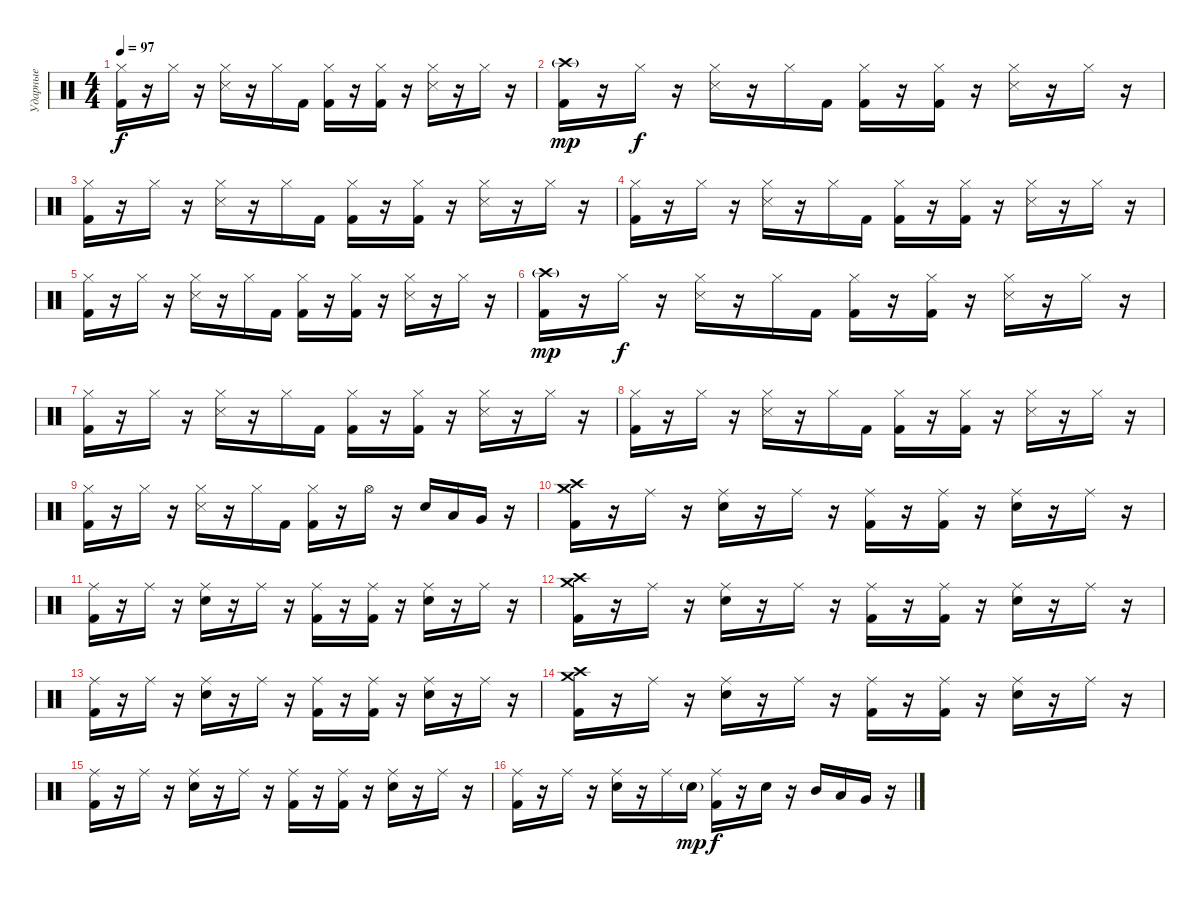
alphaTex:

\track ("Ударные" "Ударные") {instrument percussion}
\staff {score}
\articulation defaults
\ts (4 4)
\tempo 97
\clef neutral
\ks c
("Hi-Hat (closed)" "Kick (hit) 2").16{dy f} r.16 "Hi-Hat (closed)".16 r.16 ("Hi-Hat (closed)" "Snare (side stick) 3").16 r.16 "Hi-Hat (closed)".16 "Kick (hit) 2".16 ("Hi-Hat (closed)" "Kick (hit) 2").16 r.16 ("Hi-Hat (closed)" "Kick (hit) 2").16 r.16 ("Hi-Hat (closed)" "Snare (side stick) 3").16 r.16 "Hi-Hat (closed)".16 r.16 |
("Crash high (hit)"{g} "Kick (hit) 2").16{dy mp} r.16 "Hi-Hat (closed)".16{dy f} r.16 ("Hi-Hat (closed)" "Snare (side stick) 3").16 r.16 "Hi-Hat (closed)".16 "Kick (hit) 2".16 ("Hi-Hat (closed)" "Kick (hit) 2").16 r.16 ("Hi-Hat (closed)" "Kick (hit) 2").16 r.16 ("Hi-Hat (closed)" "Snare (side stick) 3").16 r.16 "Hi-Hat (closed)".16 r.16 |
("Hi-Hat (closed)" "Kick (hit) 2").16 r.16 "Hi-Hat (closed)".16 r.16 ("Hi-Hat (closed)" "Snare (side stick) 3").16 r.16 "Hi-Hat (closed)".16 "Kick (hit) 2".16 ("Hi-Hat (closed)" "Kick (hit) 2").16 r.16 ("Hi-Hat (closed)" "Kick (hit) 2").16 r.16 ("Hi-Hat (closed)" "Snare (side stick) 3").16 r.16 "Hi-Hat (closed)".16 r.16 |
("Hi-Hat (closed)" "Kick (hit) 2").16 r.16 "Hi-Hat (closed)".16 r.16 ("Hi-Hat (closed)" "Snare (side stick) 3").16 r.16 "Hi-Hat (closed)".16 "Kick (hit) 2".16 ("Hi-Hat (closed)" "Kick (hit) 2").16 r.16 ("Hi-Hat (closed)" "Kick (hit) 2").16 r.16 ("Hi-Hat (closed)" "Snare (side stick) 3").16 r.16 "Hi-Hat (closed)".16 r.16 |
("Hi-Hat (closed)" "Kick (hit) 2").16 r.16 "Hi-Hat (closed)".16 r.16 ("Hi-Hat (closed)" "Snare (side stick) 3").16 r.16 "Hi-Hat (closed)".16 "Kick (hit) 2".16 ("Hi-Hat (closed)" "Kick (hit) 2").16 r.16 ("Hi-Hat (closed)" "Kick (hit) 2").16 r.16 ("Hi-Hat (closed)" "Snare (side stick) 3").16 r.16 "Hi-Hat (closed)".16 r.16 |
("Crash high (hit)"{g} "Kick (hit) 2").16{dy mp} r.16 "Hi-Hat (closed)".16{dy f} r.16 ("Hi-Hat (closed)" "Snare (side stick) 3").16 r.16 "Hi-Hat (closed)".16 "Kick (hit) 2".16 ("Hi-Hat (closed)" "Kick (hit) 2").16 r.16 ("Hi-Hat (closed)" "Kick (hit) 2").16 r.16 ("Hi-Hat (closed)" "Snare (side stick) 3").16 r.16 "Hi-Hat (closed)".16 r.16 |
("Hi-Hat (closed)" "Kick (hit) 2").16 r.16 "Hi-Hat (closed)".16 r.16 ("Hi-Hat (closed)" "Snare (side stick) 3").16 r.16 "Hi-Hat (closed)".16 "Kick (hit) 2".16 ("Hi-Hat (closed)" "Kick (hit) 2").16 r.16 ("Hi-Hat (closed)" "Kick (hit) 2").16 r.16 ("Hi-Hat (closed)" "Snare (side stick) 3").16 r.16 "Hi-Hat (closed)".16 r.16 |
("Hi-Hat (closed)" "Kick (hit) 2").16 r.16 "Hi-Hat (closed)".16 r.16 ("Hi-Hat (closed)" "Snare (side stick) 3").16 r.16 "Hi-Hat (closed)".16 "Kick (hit) 2".16 ("Hi-Hat (closed)" "Kick (hit) 2").16 r.16 ("Hi-Hat (closed)" "Kick (hit) 2").16 r.16 ("Hi-Hat (closed)" "Snare (side stick) 3").16 r.16 "Hi-Hat (closed)".16 r.16 |
("Hi-Hat (closed)" "Kick (hit) 2").16 r.16 "Hi-Hat (closed)".16 r.16 ("Hi-Hat (closed)" "Snare (side stick) 3").16 r.16 "Hi-Hat (closed)".16 "Kick (hit) 2".16 ("Hi-Hat (closed)" "Kick (hit) 2").16 r.16 "Hi-Hat (open)".16 r.16 "Electric Snare (hit)".16 "Low Tom (hit)".16 "Very Low Tom (hit)".16 r.16 |
("Crash high (hit)" "Crash medium (hit)" "Kick (hit) 2").16 r.16 "Ride (middle)".16 r.16 ("Ride (middle)" "Electric Snare (hit)").16 r.16 "Ride (middle)".16 r.16 ("Ride (middle)" "Kick (hit) 2").16 r.16 ("Ride (middle)" "Kick (hit) 2").16 r.16 ("Ride (middle)" "Electric Snare (hit)").16 r.16 "Ride (middle)".16 r.16 |
("Ride (middle)" "Kick (hit) 2").16 r.16 "Ride (middle)".16 r.16 ("Ride (middle)" "Electric Snare (hit)").16 r.16 "Ride (middle)".16 r.16 ("Ride (middle)" "Kick (hit) 2").16 r.16 ("Ride (middle)" "Kick (hit) 2").16 r.16 ("Ride (middle)" "Electric Snare (hit)").16 r.16 "Ride (middle)".16 r.16 |
("Crash high (hit)" "Crash medium (hit)" "Kick (hit) 2").16 r.16 "Ride (middle)".16 r.16 ("Ride (middle)" "Electric Snare (hit)").16 r.16 "Ride (middle)".16 r.16 ("Ride (middle)" "Kick (hit) 2").16 r.16 ("Ride (middle)" "Kick (hit) 2").16 r.16 ("Ride (middle)" "Electric Snare (hit)").16 r.16 "Ride (middle)".16 r.16 |
("Ride (middle)" "Kick (hit) 2").16 r.16 "Ride (middle)".16 r.16 ("Ride (middle)" "Electric Snare (hit)").16 r.16 "Ride (middle)".16 r.16 ("Ride (middle)" "Kick (hit) 2").16 r.16 ("Ride (middle)" "Kick (hit) 2").16 r.16 ("Ride (middle)" "Electric Snare (hit)").16 r.16 "Ride (middle)".16 r.16 |
("Crash high (hit)" "Crash medium (hit)" "Kick (hit) 2").16 r.16 "Ride (middle)".16 r.16 ("Ride (middle)" "Electric Snare (hit)").16 r.16 "Ride (middle)".16 r.16 ("Ride (middle)" "Kick (hit) 2").16 r.16 ("Ride (middle)" "Kick (hit) 2").16 r.16 ("Ride (middle)" "Electric Snare (hit)").16 r.16 "Ride (middle)".16 r.16 |
("Ride (middle)" "Kick (hit) 2").16 r.16 "Ride (middle)".16 r.16 ("Ride (middle)" "Electric Snare (hit)").16 r.16 "Ride (middle)".16 r.16 ("Ride (middle)" "Kick (hit) 2").16 r.16 ("Ride (middle)" "Kick (hit) 2").16 r.16 ("Ride (middle)" "Electric Snare (hit)").16 r.16 "Ride (middle)".16 r.16 |
("Ride (middle)" "Kick (hit) 2").16 r.16 "Ride (middle)".16 r.16 ("Ride (middle)" "Electric Snare (hit)").16 r.16 "Ride (middle)".16 "Electric Snare (hit)"{g}.16{dy mp} ("Ride (middle)" "Kick (hit) 2").16{dy f} r.16 "Electric Snare (hit)".16 r.16 "Mid Tom (hit)".16 "Low Tom (hit)".16 "Very Low Tom (hit)".16 r.16
